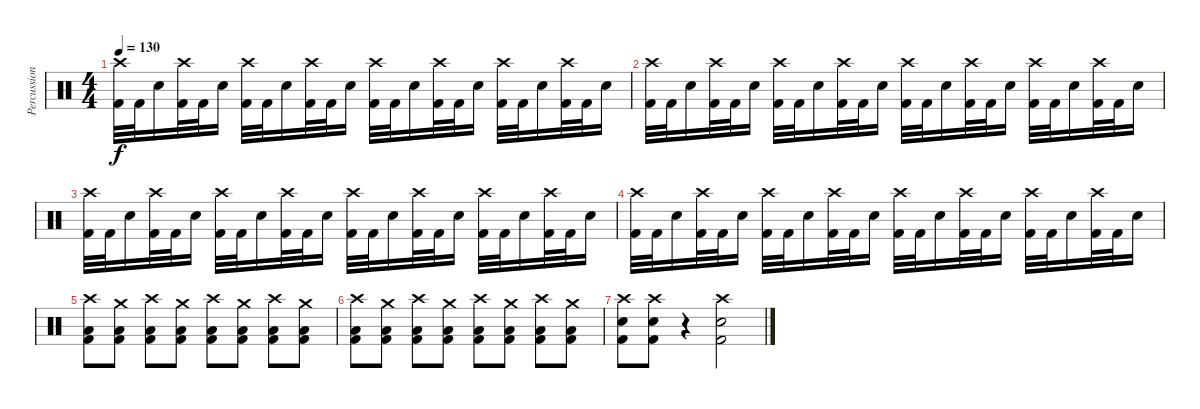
\track ("Percussion" "Percussion") {instrument percussion}
\staff {score}
\articulation defaults
\ts (4 4)
\tempo 130
\clef neutral
\ks c
("Crash high (hit)" "Kick (hit) 2").32{dy f} "Kick (hit) 2".32 "Electric Snare (hit)".16 ("Crash high (hit)" "Kick (hit) 2").32 "Kick (hit) 2".32 "Electric Snare (hit)".16 ("Crash high (hit)" "Kick (hit) 2").32 "Kick (hit) 2".32 "Electric Snare (hit)".16 ("Crash high (hit)" "Kick (hit) 2").32 "Kick (hit) 2".32 "Electric Snare (hit)".16 ("Crash high (hit)" "Kick (hit) 2").32 "Kick (hit) 2".32 "Electric Snare (hit)".16 ("Crash high (hit)" "Kick (hit) 2").32 "Kick (hit) 2".32 "Electric Snare (hit)".16 ("Crash high (hit)" "Kick (hit) 2").32 "Kick (hit) 2".32 "Electric Snare (hit)".16 ("Crash high (hit)" "Kick (hit) 2").32 "Kick (hit) 2".32 "Electric Snare (hit)".16 |
("Crash high (hit)" "Kick (hit) 2").32 "Kick (hit) 2".32 "Electric Snare (hit)".16 ("Crash high (hit)" "Kick (hit) 2").32 "Kick (hit) 2".32 "Electric Snare (hit)".16 ("Crash high (hit)" "Kick (hit) 2").32 "Kick (hit) 2".32 "Electric Snare (hit)".16 ("Crash high (hit)" "Kick (hit) 2").32 "Kick (hit) 2".32 "Electric Snare (hit)".16 ("Crash high (hit)" "Kick (hit) 2").32 "Kick (hit) 2".32 "Electric Snare (hit)".16 ("Crash high (hit)" "Kick (hit) 2").32 "Kick (hit) 2".32 "Electric Snare (hit)".16 ("Crash high (hit)" "Kick (hit) 2").32 "Kick (hit) 2".32 "Electric Snare (hit)".16 ("Crash high (hit)" "Kick (hit) 2").32 "Kick (hit) 2".32 "Electric Snare (hit)".16 |
("Crash high (hit)" "Kick (hit) 2").32 "Kick (hit) 2".32 "Electric Snare (hit)".16 ("Crash high (hit)" "Kick (hit) 2").32 "Kick (hit) 2".32 "Electric Snare (hit)".16 ("Crash high (hit)" "Kick (hit) 2").32 "Kick (hit) 2".32 "Electric Snare (hit)".16 ("Crash high (hit)" "Kick (hit) 2").32 "Kick (hit) 2".32 "Electric Snare (hit)".16 ("Crash high (hit)" "Kick (hit) 2").32 "Kick (hit) 2".32 "Electric Snare (hit)".16 ("Crash high (hit)" "Kick (hit) 2").32 "Kick (hit) 2".32 "Electric Snare (hit)".16 ("Crash high (hit)" "Kick (hit) 2").32 "Kick (hit) 2".32 "Electric Snare (hit)".16 ("Crash high (hit)" "Kick (hit) 2").32 "Kick (hit) 2".32 "Electric Snare (hit)".16 |
("Crash high (hit)" "Kick (hit) 2").32 "Kick (hit) 2".32 "Electric Snare (hit)".16 ("Crash high (hit)" "Kick (hit) 2").32 "Kick (hit) 2".32 "Electric Snare (hit)".16 ("Crash high (hit)" "Kick (hit) 2").32 "Kick (hit) 2".32 "Electric Snare (hit)".16 ("Crash high (hit)" "Kick (hit) 2").32 "Kick (hit) 2".32 "Electric Snare (hit)".16 ("Crash high (hit)" "Kick (hit) 2").32 "Kick (hit) 2".32 "Electric Snare (hit)".16 ("Crash high (hit)" "Kick (hit) 2").32 "Kick (hit) 2".32 "Electric Snare (hit)".16 ("Crash high (hit)" "Kick (hit) 2").32 "Kick (hit) 2".32 "Electric Snare (hit)".16 ("Crash high (hit)" "Kick (hit) 2").32 "Kick (hit) 2".32 "Electric Snare (hit)".16 |
("Crash high (hit)" "Low Tom (hit)" "Kick (hit) 2").8 ("Crash medium (hit)" "Low Tom (hit)" "Kick (hit) 2").8 ("Crash high (hit)" "Low Tom (hit)" "Kick (hit) 2").8 ("Crash medium (hit)" "Low Tom (hit)" "Kick (hit) 2").8 ("Crash high (hit)" "Low Tom (hit)" "Kick (hit) 2").8 ("Crash medium (hit)" "Low Tom (hit)" "Kick (hit) 2").8 ("Crash high (hit)" "Low Tom (hit)" "Kick (hit) 2").8 ("Crash medium (hit)" "Low Tom (hit)" "Kick (hit) 2").8 |
("Crash high (hit)" "Low Tom (hit)" "Kick (hit) 2").8 ("Crash medium (hit)" "Low Tom (hit)" "Kick (hit) 2").8 ("Crash high (hit)" "Low Tom (hit)" "Kick (hit) 2").8 ("Crash medium (hit)" "Low Tom (hit)" "Kick (hit) 2").8 ("Crash high (hit)" "Low Tom (hit)" "Kick (hit) 2").8 ("Crash medium (hit)" "Low Tom (hit)" "Kick (hit) 2").8 ("Crash high (hit)" "Low Tom (hit)" "Kick (hit) 2").8 ("Crash medium (hit)" "Low Tom (hit)" "Kick (hit) 2").8 |
("Crash high (hit)" "Electric Snare (hit)" "Kick (hit) 2").8 ("Crash high (hit)" "Electric Snare (hit)" "Kick (hit) 2").8 r.4 ("Crash high (hit)" "Electric Snare (hit)" "Kick (hit) 2").2
